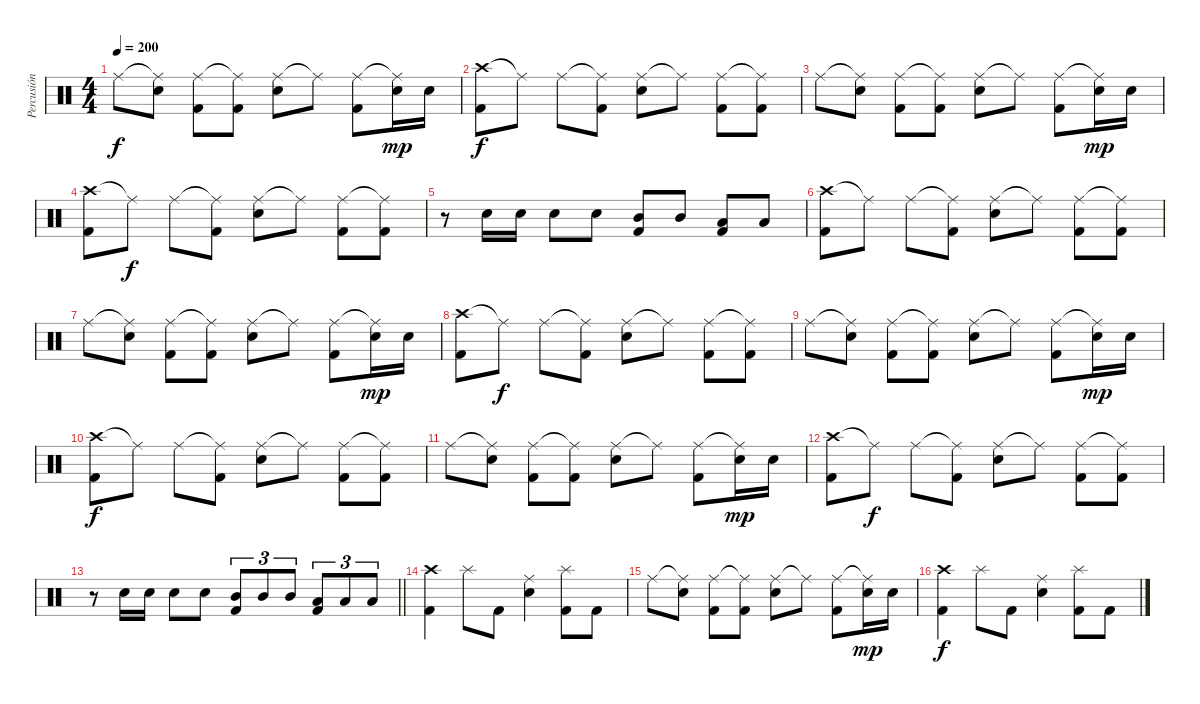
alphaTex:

\track ("Percusión" "Percusión") {instrument percussion}
\staff {score}
\articulation defaults
\ts (4 4)
\tempo 200
\clef neutral
\ks c "Ride (middle)".8{dy f}
("Ride (middle)"{t} "Snare (hit) 2").8 ("Ride (middle)" "Kick (hit) 2").8 ("Ride (middle)"{t} "Kick (hit) 2").8 ("Ride (middle)" "Snare (hit) 2").8 "Ride (middle)"{t}.8 ("Ride (middle)" "Kick (hit) 2").8 ("Ride (middle)"{t} "Snare (hit) 2").16{dy mp} "Snare (hit) 2".16 |
("Crash high (hit)" "Kick (hit) 2").8{dy f} "Ride (middle)"{t}.8 "Ride (middle)".8 ("Ride (middle)"{t} "Kick (hit) 2").8 ("Ride (middle)" "Snare (hit) 2").8 "Ride (middle)"{t}.8 ("Ride (middle)" "Kick (hit) 2").8 ("Ride (middle)"{t} "Kick (hit) 2").8 |
"Ride (middle)".8 ("Ride (middle)"{t} "Snare (hit) 2").8 ("Ride (middle)" "Kick (hit) 2").8 ("Ride (middle)"{t} "Kick (hit) 2").8 ("Ride (middle)" "Snare (hit) 2").8 "Ride (middle)"{t}.8 ("Ride (middle)" "Kick (hit) 2").8 ("Ride (middle)"{t} "Snare (hit) 2").16{dy mp} "Snare (hit) 2".16 |
("Crash high (hit)" "Kick (hit) 2").8 "Ride (middle)"{t}.8{dy f} "Ride (middle)".8 ("Ride (middle)"{t} "Kick (hit) 2").8 ("Ride (middle)" "Snare (hit) 2").8 "Ride (middle)"{t}.8 ("Ride (middle)" "Kick (hit) 2").8 ("Ride (middle)"{t} "Kick (hit) 2").8 |
r.8 "Snare (hit) 2".16 "Snare (hit) 2".16 "Snare (hit) 2".8 "Snare (hit) 2".8 ("Mid Tom (hit)" "Kick (hit) 2").8 "Mid Tom (hit)".8 ("Low Tom (hit)" "Kick (hit) 2").8 "Low Tom (hit)".8 |
("Crash high (hit)" "Kick (hit) 2").8 "Ride (middle)"{t}.8 "Ride (middle)".8 ("Ride (middle)"{t} "Kick (hit) 2").8 ("Ride (middle)" "Snare (hit) 2").8 "Ride (middle)"{t}.8 ("Ride (middle)" "Kick (hit) 2").8 ("Ride (middle)"{t} "Kick (hit) 2").8 |
"Ride (middle)".8 ("Ride (middle)"{t} "Snare (hit) 2").8 ("Ride (middle)" "Kick (hit) 2").8 ("Ride (middle)"{t} "Kick (hit) 2").8 ("Ride (middle)" "Snare (hit) 2").8 "Ride (middle)"{t}.8 ("Ride (middle)" "Kick (hit) 2").8 ("Ride (middle)"{t} "Snare (hit) 2").16{dy mp} "Snare (hit) 2".16 |
("Crash high (hit)" "Kick (hit) 2").8 "Ride (middle)"{t}.8{dy f} "Ride (middle)".8 ("Ride (middle)"{t} "Kick (hit) 2").8 ("Ride (middle)" "Snare (hit) 2").8 "Ride (middle)"{t}.8 ("Ride (middle)" "Kick (hit) 2").8 ("Ride (middle)"{t} "Kick (hit) 2").8 |
"Ride (middle)".8 ("Ride (middle)"{t} "Snare (hit) 2").8 ("Ride (middle)" "Kick (hit) 2").8 ("Ride (middle)"{t} "Kick (hit) 2").8 ("Ride (middle)" "Snare (hit) 2").8 "Ride (middle)"{t}.8 ("Ride (middle)" "Kick (hit) 2").8 ("Ride (middle)"{t} "Snare (hit) 2").16{dy mp} "Snare (hit) 2".16 |
("Crash high (hit)" "Kick (hit) 2").8{dy f} "Ride (middle)"{t}.8 "Ride (middle)".8 ("Ride (middle)"{t} "Kick (hit) 2").8 ("Ride (middle)" "Snare (hit) 2").8 "Ride (middle)"{t}.8 ("Ride (middle)" "Kick (hit) 2").8 ("Ride (middle)"{t} "Kick (hit) 2").8 |
"Ride (middle)".8 ("Ride (middle)"{t} "Snare (hit) 2").8 ("Ride (middle)" "Kick (hit) 2").8 ("Ride (middle)"{t} "Kick (hit) 2").8 ("Ride (middle)" "Snare (hit) 2").8 "Ride (middle)"{t}.8 ("Ride (middle)" "Kick (hit) 2").8 ("Ride (middle)"{t} "Snare (hit) 2").16{dy mp} "Snare (hit) 2".16 |
("Crash high (hit)" "Kick (hit) 2").8 "Ride (middle)"{t}.8{dy f} "Ride (middle)".8 ("Ride (middle)"{t} "Kick (hit) 2").8 ("Ride (middle)" "Snare (hit) 2").8 "Ride (middle)"{t}.8 ("Ride (middle)" "Kick (hit) 2").8 ("Ride (middle)"{t} "Kick (hit) 2").8 |
\barLineRight lightlight
r.8 "Snare (hit) 2".16 "Snare (hit) 2".16 "Snare (hit) 2".8 "Snare (hit) 2".8 ("Mid Tom (hit)" "Kick (hit) 2").8{tu (3 2)} "Mid Tom (hit)".8{tu (3 2)} "Mid Tom (hit)".8{tu (3 2)} ("Low Tom (hit)" "Kick (hit) 2").8{tu (3 2)} "Low Tom (hit)".8{tu (3 2)} "Low Tom (hit)".8{tu (3 2)} |
("Crash high (hit)" "Kick (hit) 2").4 "Splash (hit)".8 "Kick (hit) 2".8 ("Ride (middle)" "Snare (hit) 2").4 ("Splash (hit)" "Kick (hit) 2").8 "Kick (hit) 2".8 |
"Ride (middle)".8 ("Ride (middle)"{t} "Snare (hit) 2").8 ("Ride (middle)" "Kick (hit) 2").8 ("Ride (middle)"{t} "Kick (hit) 2").8 ("Ride (middle)" "Snare (hit) 2").8 "Ride (middle)"{t}.8 ("Ride (middle)" "Kick (hit) 2").8 ("Ride (middle)"{t} "Snare (hit) 2").16{dy mp} "Snare (hit) 2".16 |
("Crash high (hit)" "Kick (hit) 2").4{dy f} "Splash (hit)".8 "Kick (hit) 2".8 ("Ride (middle)" "Snare (hit) 2").4 ("Splash (hit)" "Kick (hit) 2").8 "Kick (hit) 2".8
